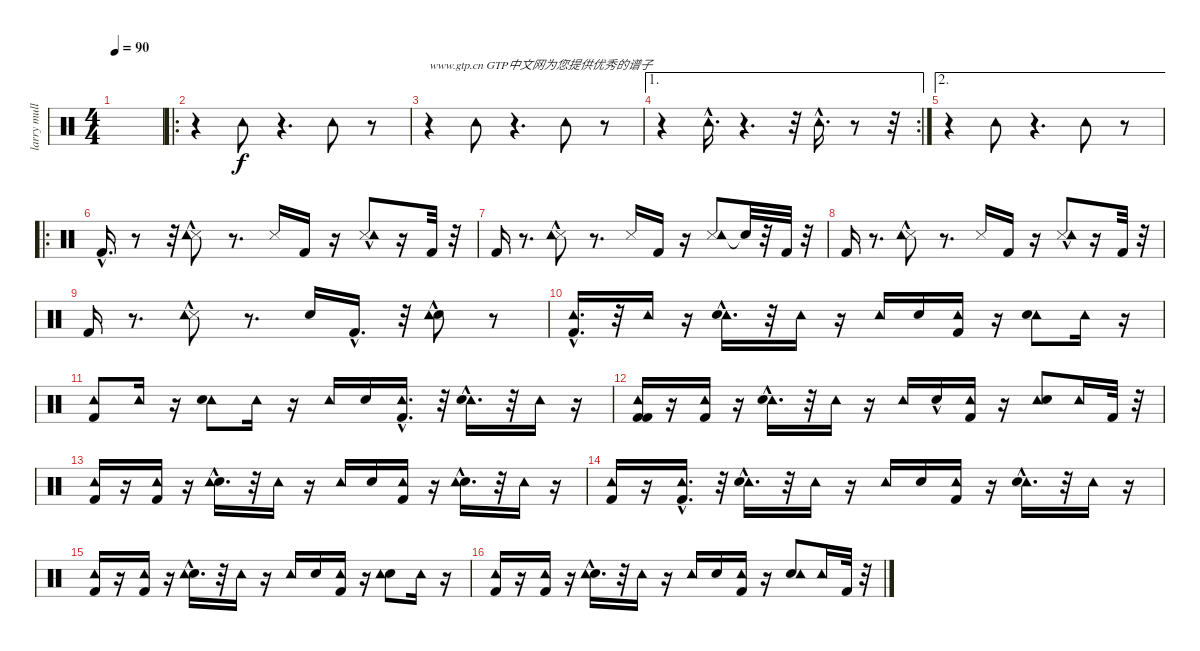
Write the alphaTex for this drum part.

\track ("larry mullen jr" "larry mull") {instrument percussion}
\staff {score}
\articulation defaults
\ts (4 4)
\tempo 90
\clef neutral
\ks c
|
\ro
r.4 "Tambourine (hit)".8 r.4{d} "Tambourine (hit)".8 r.8 |
r.4{txt "www.gtp.cn GTP中文网为您提供优秀的谱子"} "Tambourine (hit)".8 r.4{d} "Tambourine (hit)".8 r.8 |
\ae 1
\rc 2
r.4 "Tambourine (hit)"{hac}.16{d} r.4{d} r.32 "Tambourine (hit)"{hac}.16{d} r.8 r.32 |
\ae 2
r.4 "Tambourine (hit)".8 r.4{d} "Tambourine (hit)".8 r.8 |
\ro "Kick (hit) 2"{hac}.16{d}
r.8 r.32 ("Snare (side stick) 3"{hac} "Tambourine (hit)").8 r.8{d} "Snare (side stick) 3".16 "Kick (hit) 2".16 r.16 ("Snare (side stick) 3"{hac} "Tambourine (hit)").8 r.16 "Kick (hit) 2".32 r.32 |
"Kick (hit) 2".16 r.8{d} ("Snare (side stick) 3"{hac} "Tambourine (hit)").8 r.8{d} "Snare (side stick) 3".16 "Kick (hit) 2".16 r.16 ("Snare (side stick) 3" "Tambourine (hit)").8 "Snare (hit)"{t}.32 r.32 "Kick (hit) 2".32 r.32 |
"Kick (hit) 2".16 r.8{d} ("Snare (side stick) 3"{hac} "Tambourine (hit)").8 r.8{d} "Snare (side stick) 3".16 "Kick (hit) 2".16 r.16 ("Snare (side stick) 3"{hac} "Tambourine (hit)").8 r.16 "Kick (hit) 2".32 r.32 |
"Kick (hit) 2".16 r.8{d} ("Snare (side stick) 3"{hac} "Tambourine (hit)").8 r.8{d} "Electric Snare (hit)".16 "Kick (hit) 2"{hac}.16{d} r.32 ("Electric Snare (hit)"{hac} "Tambourine (hit)").8 r.8 |
("Tambourine (hit)" "Kick (hit) 2"{hac}).16{d} r.32 "Tambourine (hit)".16 r.16 ("Tambourine (hit)" "Electric Snare (hit)"{hac}).16{d} r.32 "Tambourine (hit)".16 r.16 "Tambourine (hit)".16 "Electric Snare (hit)".16 ("Tambourine (hit)" "Kick (hit) 2").16 r.16 ("Tambourine (hit)" "Electric Snare (hit)").8 "Tambourine (hit)".16 r.16 |
("Kick (hit) 2" "Tambourine (hit)").8 "Tambourine (hit)".16 r.16 ("Tambourine (hit)" "Electric Snare (hit)").8 "Tambourine (hit)".16 r.16 "Tambourine (hit)".16 "Electric Snare (hit)".16 ("Kick (hit) 2"{hac} "Tambourine (hit)").16{d} r.32 ("Tambourine (hit)" "Electric Snare (hit)"{hac}).16{d} r.32 "Tambourine (hit)".16 r.16 |
("Kick (hit) 2" "Tambourine (hit)" "Kick (hit) 2").16 r.16 ("Kick (hit) 2" "Tambourine (hit)").16 r.16 ("Tambourine (hit)" "Electric Snare (hit)"{hac}).16{d} r.32 "Tambourine (hit)".16 r.16 "Tambourine (hit)".16 "Electric Snare (hit)"{hac}.16 ("Kick (hit) 2" "Tambourine (hit)").16 r.16 ("Tambourine (hit)" "Electric Snare (hit)").8 "Tambourine (hit)".16 "Kick (hit) 2".32 r.32 |
("Kick (hit) 2" "Tambourine (hit)").16 r.16 ("Tambourine (hit)" "Kick (hit) 2").16 r.16 ("Electric Snare (hit)"{hac} "Tambourine (hit)").16{d} r.32 "Tambourine (hit)".16 r.16 "Tambourine (hit)".16 "Electric Snare (hit)".16 ("Kick (hit) 2" "Tambourine (hit)").16 r.16 ("Electric Snare (hit)"{hac} "Tambourine (hit)").16{d} r.32 "Tambourine (hit)".16 r.16 |
("Tambourine (hit)" "Kick (hit) 2").16 r.16 ("Tambourine (hit)"{hac} "Kick (hit) 2").16{d} r.32 ("Tambourine (hit)" "Electric Snare (hit)"{hac}).16{d} r.32 "Tambourine (hit)".16 r.16 "Tambourine (hit)".16 "Electric Snare (hit)".16 ("Kick (hit) 2" "Tambourine (hit)").16 r.16 ("Tambourine (hit)" "Electric Snare (hit)"{hac}).16{d} r.32 "Tambourine (hit)".16 r.16 |
("Tambourine (hit)" "Kick (hit) 2").16 r.16 ("Kick (hit) 2" "Tambourine (hit)").16 r.16 ("Electric Snare (hit)"{hac} "Tambourine (hit)").16{d} r.32 "Tambourine (hit)".16 r.16 "Tambourine (hit)".16 "Electric Snare (hit)".16 ("Tambourine (hit)" "Kick (hit) 2").16 r.16 ("Electric Snare (hit)" "Tambourine (hit)").8 "Tambourine (hit)".16 r.16 |
("Kick (hit) 2" "Tambourine (hit)").16 r.16 ("Kick (hit) 2" "Tambourine (hit)").16 r.16 ("Electric Snare (hit)"{hac} "Tambourine (hit)").16{d} r.32 "Tambourine (hit)".16 r.16 "Tambourine (hit)".16 "Electric Snare (hit)".16 ("Kick (hit) 2" "Tambourine (hit)").16 r.16 ("Electric Snare (hit)" "Tambourine (hit)").8 "Tambourine (hit)".16 "Kick (hit) 2".32 r.32
